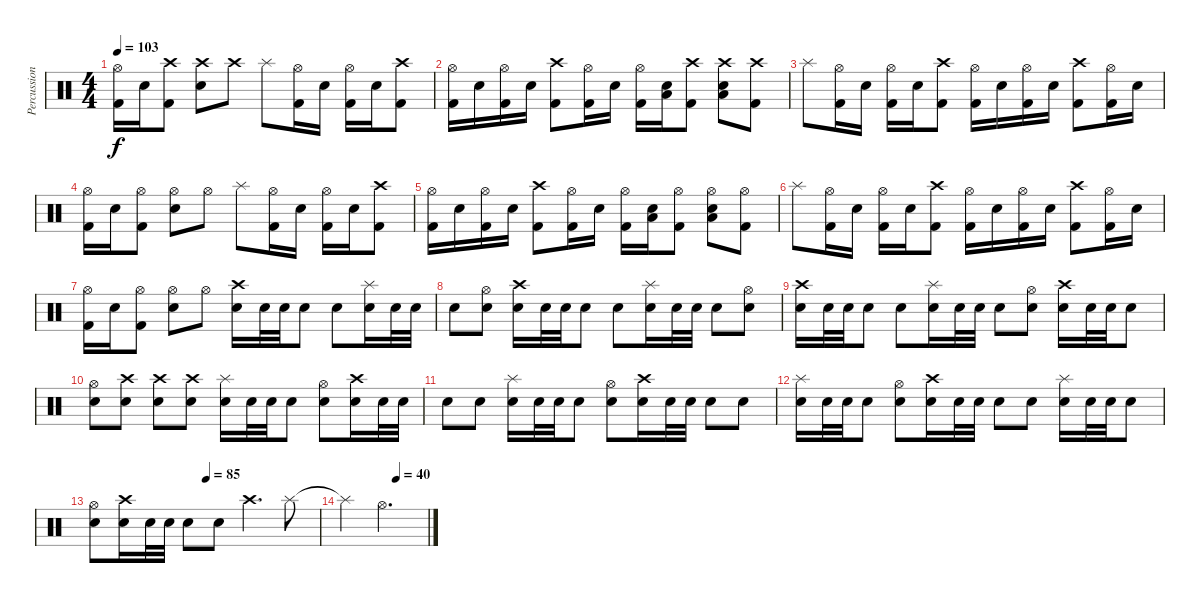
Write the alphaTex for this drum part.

\track ("Percussion" "Percussion") {instrument percussion}
\staff {score}
\articulation defaults
\ts (4 4)
\tempo 103
\clef neutral
\ks c
("Kick (hit) 2" "Hi-Hat (open)").16{dy f} "Snare (hit) 2".16 ("Kick (hit) 2" "Crash high (hit)").8 ("Snare (hit) 2" "Crash high (hit)").8 "Crash high (hit)".8 "Splash (hit)".8 ("Kick (hit) 2" "Hi-Hat (open)").16 "Snare (hit) 2".16 ("Kick (hit) 2" "Hi-Hat (open)").16 "Snare (hit) 2".16 ("Kick (hit) 2" "Crash high (hit)").8 |
("Kick (hit) 2" "Hi-Hat (open)").16 "Snare (hit) 2".16 ("Kick (hit) 2" "Hi-Hat (open)").16 "Snare (hit) 2".16 ("Kick (hit) 2" "Crash high (hit)").8 ("Kick (hit) 2" "Hi-Hat (open)").16 "Snare (hit) 2".16 ("Kick (hit) 2" "Hi-Hat (open)").16 ("Low Floor Tom (hit)" "Snare (hit) 2").16 ("Kick (hit) 2" "Crash high (hit)").8 ("Low Floor Tom (hit)" "Snare (hit) 2" "Crash high (hit)").8 ("Kick (hit) 2" "Crash high (hit)").8 |
"Splash (hit)".8 ("Kick (hit) 2" "Hi-Hat (open)").16 "Snare (hit) 2".16 ("Kick (hit) 2" "Hi-Hat (open)").16 "Snare (hit) 2".16 ("Kick (hit) 2" "Crash high (hit)").8 ("Kick (hit) 2" "Hi-Hat (open)").16 "Snare (hit) 2".16 ("Kick (hit) 2" "Hi-Hat (open)").16 "Snare (hit) 2".16 ("Kick (hit) 2" "Crash high (hit)").8 ("Kick (hit) 2" "Hi-Hat (open)").16 "Snare (hit) 2".16 |
("Kick (hit) 2" "Hi-Hat (open)").16 "Snare (hit) 2".16 ("Kick (hit) 2" "Hi-Hat (open)").8 ("Snare (hit) 2" "Hi-Hat (open)").8 "Hi-Hat (open)".8 "Splash (hit)".8 ("Kick (hit) 2" "Hi-Hat (open)").16 "Snare (hit) 2".16 ("Kick (hit) 2" "Hi-Hat (open)").16 "Snare (hit) 2".16 ("Kick (hit) 2" "Crash high (hit)").8 |
("Kick (hit) 2" "Hi-Hat (open)").16 "Snare (hit) 2".16 ("Kick (hit) 2" "Hi-Hat (open)").16 "Snare (hit) 2".16 ("Kick (hit) 2" "Crash high (hit)").8 ("Kick (hit) 2" "Hi-Hat (open)").16 "Snare (hit) 2".16 ("Kick (hit) 2" "Hi-Hat (open)").16 ("Low Floor Tom (hit)" "Snare (hit) 2").16 ("Kick (hit) 2" "Hi-Hat (open)").8 ("Low Floor Tom (hit)" "Snare (hit) 2" "Hi-Hat (open)").8 ("Kick (hit) 2" "Hi-Hat (open)").8 |
"Splash (hit)".8 ("Kick (hit) 2" "Hi-Hat (open)").16 "Snare (hit) 2".16 ("Kick (hit) 2" "Hi-Hat (open)").16 "Snare (hit) 2".16 ("Kick (hit) 2" "Crash high (hit)").8 ("Kick (hit) 2" "Hi-Hat (open)").16 "Snare (hit) 2".16 ("Kick (hit) 2" "Hi-Hat (open)").16 "Snare (hit) 2".16 ("Kick (hit) 2" "Crash high (hit)").8 ("Kick (hit) 2" "Hi-Hat (open)").16 "Snare (hit) 2".16 |
("Kick (hit) 2" "Hi-Hat (open)").16 "Snare (hit) 2".16 ("Kick (hit) 2" "Hi-Hat (open)").8 ("Snare (hit) 2" "Hi-Hat (open)").8 "Hi-Hat (open)".8 ("Snare (hit) 2" "Crash high (hit)").16 "Snare (hit) 2".32 "Snare (hit) 2".32 "Snare (hit) 2".8 "Snare (hit) 2".8 ("Snare (hit) 2" "Splash (hit)").16 "Snare (hit) 2".32 "Snare (hit) 2".32 |
"Snare (hit) 2".8 ("Snare (hit) 2" "Hi-Hat (open)").8 ("Snare (hit) 2" "Crash high (hit)").16 "Snare (hit) 2".32 "Snare (hit) 2".32 "Snare (hit) 2".8 "Snare (hit) 2".8 ("Snare (hit) 2" "Splash (hit)").16 "Snare (hit) 2".32 "Snare (hit) 2".32 "Snare (hit) 2".8 ("Snare (hit) 2" "Hi-Hat (open)").8 |
("Snare (hit) 2" "Crash high (hit)").16 "Snare (hit) 2".32 "Snare (hit) 2".32 "Snare (hit) 2".8 "Snare (hit) 2".8 ("Snare (hit) 2" "Splash (hit)").16 "Snare (hit) 2".32 "Snare (hit) 2".32 "Snare (hit) 2".8 ("Snare (hit) 2" "Hi-Hat (open)").8 ("Snare (hit) 2" "Crash high (hit)").16 "Snare (hit) 2".32 "Snare (hit) 2".32 "Snare (hit) 2".8 |
("Snare (hit) 2" "Hi-Hat (open)").8 ("Snare (hit) 2" "Crash high (hit)").8 ("Snare (hit) 2" "Crash high (hit)").8 ("Snare (hit) 2" "Crash high (hit)").8 ("Snare (hit) 2" "Splash (hit)").16 "Snare (hit) 2".32 "Snare (hit) 2".32 "Snare (hit) 2".8 ("Snare (hit) 2" "Hi-Hat (open)").8 ("Snare (hit) 2" "Crash high (hit)").16 "Snare (hit) 2".32 "Snare (hit) 2".32 |
"Snare (hit) 2".8 "Snare (hit) 2".8 ("Snare (hit) 2" "Splash (hit)").16 "Snare (hit) 2".32 "Snare (hit) 2".32 "Snare (hit) 2".8 ("Snare (hit) 2" "Hi-Hat (open)").8 ("Snare (hit) 2" "Crash high (hit)").16 "Snare (hit) 2".32 "Snare (hit) 2".32 "Snare (hit) 2".8 "Snare (hit) 2".8 |
("Snare (hit) 2" "Splash (hit)").16 "Snare (hit) 2".32 "Snare (hit) 2".32 "Snare (hit) 2".8 ("Snare (hit) 2" "Hi-Hat (open)").8 ("Snare (hit) 2" "Crash high (hit)").16 "Snare (hit) 2".32 "Snare (hit) 2".32 "Snare (hit) 2".8 "Snare (hit) 2".8 ("Snare (hit) 2" "Splash (hit)").16 "Snare (hit) 2".32 "Snare (hit) 2".32 "Snare (hit) 2".8 |
\tempo (85 0.5)
("Snare (hit) 2" "Hi-Hat (open)").8 ("Snare (hit) 2" "Crash high (hit)").16 "Snare (hit) 2".32 "Snare (hit) 2".32 "Snare (hit) 2".8 "Snare (hit) 2".8 "Crash high (hit)".4{d} "Splash (hit)".8 |
\tempo (40 0.625)
"Splash (hit)"{t}.4 "Hi-Hat (open)".2{d}
